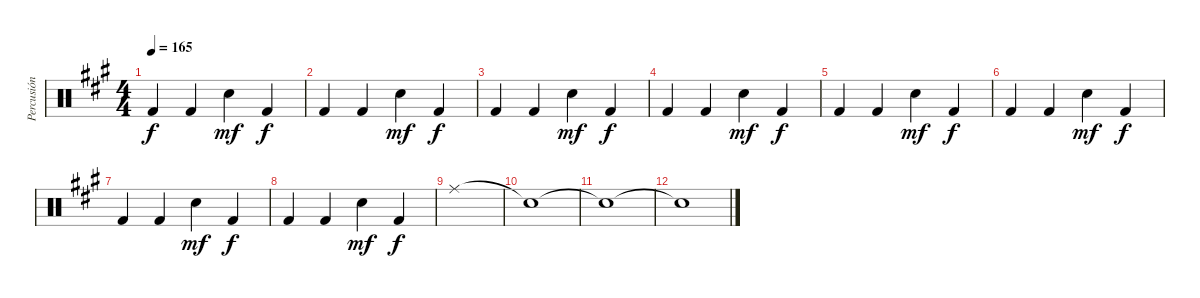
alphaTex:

\track ("Percusión" "Percusión") {instrument percussion}
\staff {score}
\articulation defaults
\ts (4 4)
\tempo 165
\clef neutral
\ks a "Kick (hit) 2".4{dy f} "Kick (hit) 2".4 "Snare (hit) 2".4{dy mf} "Kick (hit) 2".4{dy f}
|
"Kick (hit) 2".4 "Kick (hit) 2".4 "Snare (hit) 2".4{dy mf} "Kick (hit) 2".4{dy f} |
"Kick (hit) 2".4 "Kick (hit) 2".4 "Snare (hit) 2".4{dy mf} "Kick (hit) 2".4{dy f} |
"Kick (hit) 2".4 "Kick (hit) 2".4 "Snare (hit) 2".4{dy mf} "Kick (hit) 2".4{dy f} |
"Kick (hit) 2".4 "Kick (hit) 2".4 "Snare (hit) 2".4{dy mf} "Kick (hit) 2".4{dy f} |
"Kick (hit) 2".4 "Kick (hit) 2".4 "Snare (hit) 2".4{dy mf} "Kick (hit) 2".4{dy f} |
"Kick (hit) 2".4 "Kick (hit) 2".4 "Snare (hit) 2".4{dy mf} "Kick (hit) 2".4{dy f} |
"Kick (hit) 2".4 "Kick (hit) 2".4 "Snare (hit) 2".4{dy mf} "Kick (hit) 2".4{dy f} |
"Ride (middle)".1 |
"Snare (hit)"{t}.1 |
"Snare (hit)"{t}.1 |
"Snare (hit)"{t}.1
